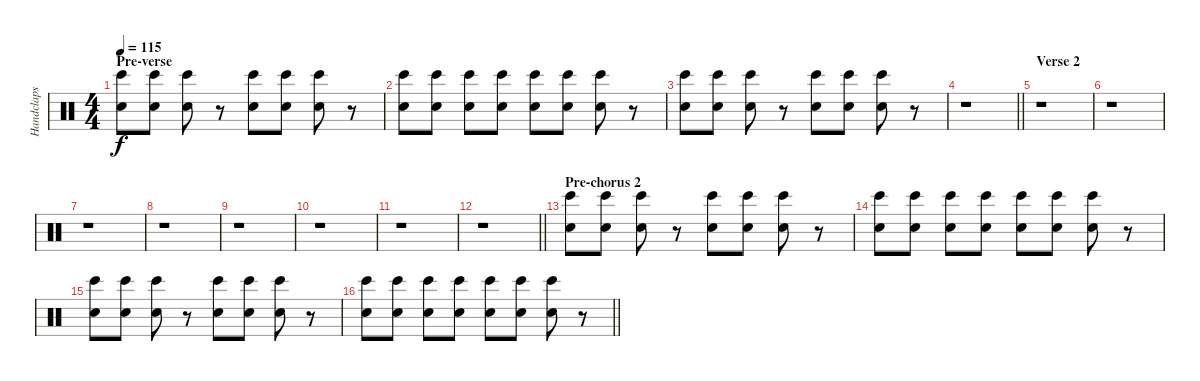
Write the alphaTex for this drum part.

\track ("Handclaps" "Handclaps") {instrument percussion}
\staff {score}
\articulation defaults
\ts (4 4)
\section ("" "Pre-verse")
\tempo 115
\clef neutral
\ks c
("Bongo High (hit)" "Hand Clap (hit)").8{dy f} ("Bongo High (hit)" "Hand Clap (hit)").8 ("Bongo High (hit)" "Hand Clap (hit)").8 r.8 ("Bongo High (hit)" "Hand Clap (hit)").8 ("Bongo High (hit)" "Hand Clap (hit)").8 ("Bongo High (hit)" "Hand Clap (hit)").8 r.8 |
("Bongo High (hit)" "Hand Clap (hit)").8 ("Bongo High (hit)" "Hand Clap (hit)").8 ("Bongo High (hit)" "Hand Clap (hit)").8 ("Bongo High (hit)" "Hand Clap (hit)").8 ("Bongo High (hit)" "Hand Clap (hit)").8 ("Bongo High (hit)" "Hand Clap (hit)").8 ("Bongo High (hit)" "Hand Clap (hit)").8 r.8 |
("Bongo High (hit)" "Hand Clap (hit)").8 ("Bongo High (hit)" "Hand Clap (hit)").8 ("Bongo High (hit)" "Hand Clap (hit)").8 r.8 ("Bongo High (hit)" "Hand Clap (hit)").8 ("Bongo High (hit)" "Hand Clap (hit)").8 ("Bongo High (hit)" "Hand Clap (hit)").8 r.8 |
\barLineRight lightlight
r.1 |
\section ("" "Verse 2")
r.1 |
r.1 |
r.1 |
r.1 |
r.1 |
r.1 |
r.1 |
\barLineRight lightlight
r.1 |
\section ("" "Pre-chorus 2")
("Bongo High (hit)" "Hand Clap (hit)").8 ("Bongo High (hit)" "Hand Clap (hit)").8 ("Bongo High (hit)" "Hand Clap (hit)").8 r.8 ("Bongo High (hit)" "Hand Clap (hit)").8 ("Bongo High (hit)" "Hand Clap (hit)").8 ("Bongo High (hit)" "Hand Clap (hit)").8 r.8 |
("Bongo High (hit)" "Hand Clap (hit)").8 ("Bongo High (hit)" "Hand Clap (hit)").8 ("Bongo High (hit)" "Hand Clap (hit)").8 ("Bongo High (hit)" "Hand Clap (hit)").8 ("Bongo High (hit)" "Hand Clap (hit)").8 ("Bongo High (hit)" "Hand Clap (hit)").8 ("Bongo High (hit)" "Hand Clap (hit)").8 r.8 |
("Bongo High (hit)" "Hand Clap (hit)").8 ("Bongo High (hit)" "Hand Clap (hit)").8 ("Bongo High (hit)" "Hand Clap (hit)").8 r.8 ("Bongo High (hit)" "Hand Clap (hit)").8 ("Bongo High (hit)" "Hand Clap (hit)").8 ("Bongo High (hit)" "Hand Clap (hit)").8 r.8 |
\barLineRight lightlight
("Bongo High (hit)" "Hand Clap (hit)").8 ("Bongo High (hit)" "Hand Clap (hit)").8 ("Bongo High (hit)" "Hand Clap (hit)").8 ("Bongo High (hit)" "Hand Clap (hit)").8 ("Bongo High (hit)" "Hand Clap (hit)").8 ("Bongo High (hit)" "Hand Clap (hit)").8 ("Bongo High (hit)" "Hand Clap (hit)").8 r.8
